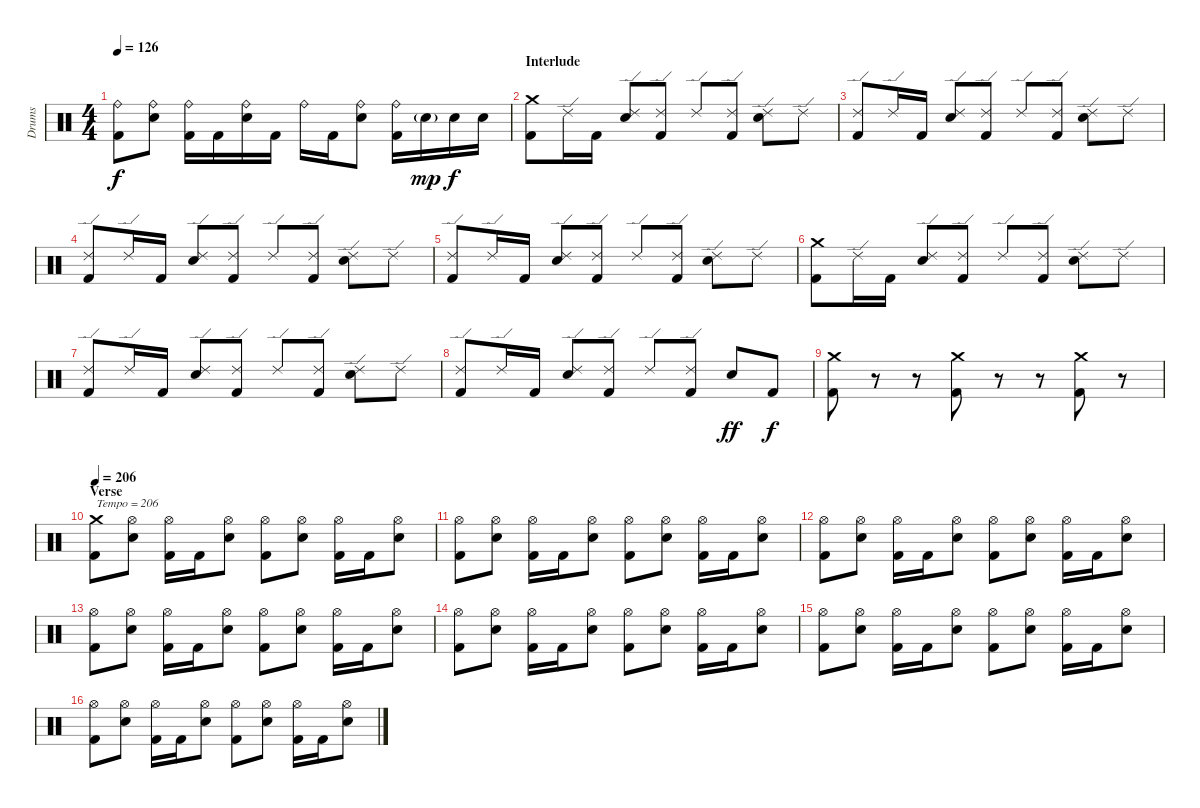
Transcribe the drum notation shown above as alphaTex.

\track ("Drums" "Drums") {instrument percussion}
\staff {score}
\articulation defaults
\ts (4 4)
\tempo 126
\clef neutral
\ks c
("Ride (bell)" "Kick (hit) 2").8{dy f} ("Ride (bell)" "Electric Snare (hit)").8 ("Ride (bell)" "Kick (hit) 2").16 "Kick (hit) 2".16 ("Ride (bell)" "Electric Snare (hit)").16 "Kick (hit) 2".16 "Ride (bell)".16 "Kick (hit) 2".16 ("Ride (bell)" "Electric Snare (hit)").8 ("Ride (bell)" "Kick (hit) 2").16 "Electric Snare (hit)"{g}.16{dy mp} "Electric Snare (hit)".16{dy f} "Electric Snare (hit)".16 |
\section ("" "Interlude")
("Crash medium (hit)" "Kick (hit) 2").8 "Ride (edge) 2".16 "Kick (hit) 2".16 ("Ride (edge) 2" "Electric Snare (hit)").8 ("Ride (edge) 2" "Kick (hit) 2").8 "Ride (edge) 2".8 ("Ride (edge) 2" "Kick (hit) 2").8 ("Ride (edge) 2" "Electric Snare (hit)").8 "Ride (edge) 2".8 |
("Ride (edge) 2" "Kick (hit) 2").8 "Ride (edge) 2".16 "Kick (hit) 2".16 ("Ride (edge) 2" "Electric Snare (hit)").8 ("Ride (edge) 2" "Kick (hit) 2").8 "Ride (edge) 2".8 ("Ride (edge) 2" "Kick (hit) 2").8 ("Ride (edge) 2" "Electric Snare (hit)").8 "Ride (edge) 2".8 |
("Ride (edge) 2" "Kick (hit) 2").8 "Ride (edge) 2".16 "Kick (hit) 2".16 ("Ride (edge) 2" "Electric Snare (hit)").8 ("Ride (edge) 2" "Kick (hit) 2").8 "Ride (edge) 2".8 ("Ride (edge) 2" "Kick (hit) 2").8 ("Ride (edge) 2" "Electric Snare (hit)").8 "Ride (edge) 2".8 |
("Ride (edge) 2" "Kick (hit) 2").8 "Ride (edge) 2".16 "Kick (hit) 2".16 ("Ride (edge) 2" "Electric Snare (hit)").8 ("Ride (edge) 2" "Kick (hit) 2").8 "Ride (edge) 2".8 ("Ride (edge) 2" "Kick (hit) 2").8 ("Ride (edge) 2" "Electric Snare (hit)").8 "Ride (edge) 2".8 |
("Crash medium (hit)" "Kick (hit) 2").8 "Ride (edge) 2".16 "Kick (hit) 2".16 ("Ride (edge) 2" "Electric Snare (hit)").8 ("Ride (edge) 2" "Kick (hit) 2").8 "Ride (edge) 2".8 ("Ride (edge) 2" "Kick (hit) 2").8 ("Ride (edge) 2" "Electric Snare (hit)").8 "Ride (edge) 2".8 |
("Ride (edge) 2" "Kick (hit) 2").8 "Ride (edge) 2".16 "Kick (hit) 2".16 ("Ride (edge) 2" "Electric Snare (hit)").8 ("Ride (edge) 2" "Kick (hit) 2").8 "Ride (edge) 2".8 ("Ride (edge) 2" "Kick (hit) 2").8 ("Ride (edge) 2" "Electric Snare (hit)").8 "Ride (edge) 2".8 |
("Ride (edge) 2" "Kick (hit) 2").8 "Ride (edge) 2".16 "Kick (hit) 2".16 ("Ride (edge) 2" "Electric Snare (hit)").8 ("Ride (edge) 2" "Kick (hit) 2").8 "Ride (edge) 2".8 ("Ride (edge) 2" "Kick (hit) 2").8 "Electric Snare (hit)".8{dy ff} "Kick (hit) 2".8{dy f} |
("Crash medium (hit)" "Kick (hit) 2").8 r.8 r.8 ("Crash medium (hit)" "Kick (hit) 2").8 r.8 r.8 ("Crash medium (hit)" "Kick (hit) 2").8 r.8 |
\section ("" "Verse")
\tempo 206
("Crash medium (hit)" "Kick (hit) 2").8{txt "Tempo = 206"} ("Hi-Hat (open)" "Electric Snare (hit)").8 ("Hi-Hat (open)" "Kick (hit) 2").16 "Kick (hit) 2".16 ("Hi-Hat (open)" "Electric Snare (hit)").8 ("Hi-Hat (open)" "Kick (hit) 2").8 ("Hi-Hat (open)" "Electric Snare (hit)").8 ("Hi-Hat (open)" "Kick (hit) 2").16 "Kick (hit) 2".16 ("Hi-Hat (open)" "Electric Snare (hit)").8 |
("Hi-Hat (open)" "Kick (hit) 2").8 ("Hi-Hat (open)" "Electric Snare (hit)").8 ("Hi-Hat (open)" "Kick (hit) 2").16 "Kick (hit) 2".16 ("Hi-Hat (open)" "Electric Snare (hit)").8 ("Hi-Hat (open)" "Kick (hit) 2").8 ("Hi-Hat (open)" "Electric Snare (hit)").8 ("Hi-Hat (open)" "Kick (hit) 2").16 "Kick (hit) 2".16 ("Hi-Hat (open)" "Electric Snare (hit)").8 |
("Hi-Hat (open)" "Kick (hit) 2").8 ("Hi-Hat (open)" "Electric Snare (hit)").8 ("Hi-Hat (open)" "Kick (hit) 2").16 "Kick (hit) 2".16 ("Hi-Hat (open)" "Electric Snare (hit)").8 ("Hi-Hat (open)" "Kick (hit) 2").8 ("Hi-Hat (open)" "Electric Snare (hit)").8 ("Hi-Hat (open)" "Kick (hit) 2").16 "Kick (hit) 2".16 ("Hi-Hat (open)" "Electric Snare (hit)").8 |
("Hi-Hat (open)" "Kick (hit) 2").8 ("Hi-Hat (open)" "Electric Snare (hit)").8 ("Hi-Hat (open)" "Kick (hit) 2").16 "Kick (hit) 2".16 ("Hi-Hat (open)" "Electric Snare (hit)").8 ("Hi-Hat (open)" "Kick (hit) 2").8 ("Hi-Hat (open)" "Electric Snare (hit)").8 ("Hi-Hat (open)" "Kick (hit) 2").16 "Kick (hit) 2".16 ("Hi-Hat (open)" "Electric Snare (hit)").8 |
("Hi-Hat (open)" "Kick (hit) 2").8 ("Hi-Hat (open)" "Electric Snare (hit)").8 ("Hi-Hat (open)" "Kick (hit) 2").16 "Kick (hit) 2".16 ("Hi-Hat (open)" "Electric Snare (hit)").8 ("Hi-Hat (open)" "Kick (hit) 2").8 ("Hi-Hat (open)" "Electric Snare (hit)").8 ("Hi-Hat (open)" "Kick (hit) 2").16 "Kick (hit) 2".16 ("Hi-Hat (open)" "Electric Snare (hit)").8 |
("Hi-Hat (open)" "Kick (hit) 2").8 ("Hi-Hat (open)" "Electric Snare (hit)").8 ("Hi-Hat (open)" "Kick (hit) 2").16 "Kick (hit) 2".16 ("Hi-Hat (open)" "Electric Snare (hit)").8 ("Hi-Hat (open)" "Kick (hit) 2").8 ("Hi-Hat (open)" "Electric Snare (hit)").8 ("Hi-Hat (open)" "Kick (hit) 2").16 "Kick (hit) 2".16 ("Hi-Hat (open)" "Electric Snare (hit)").8 |
("Hi-Hat (open)" "Kick (hit) 2").8 ("Hi-Hat (open)" "Electric Snare (hit)").8 ("Hi-Hat (open)" "Kick (hit) 2").16 "Kick (hit) 2".16 ("Hi-Hat (open)" "Electric Snare (hit)").8 ("Hi-Hat (open)" "Kick (hit) 2").8 ("Hi-Hat (open)" "Electric Snare (hit)").8 ("Hi-Hat (open)" "Kick (hit) 2").16 "Kick (hit) 2".16 ("Hi-Hat (open)" "Electric Snare (hit)").8
